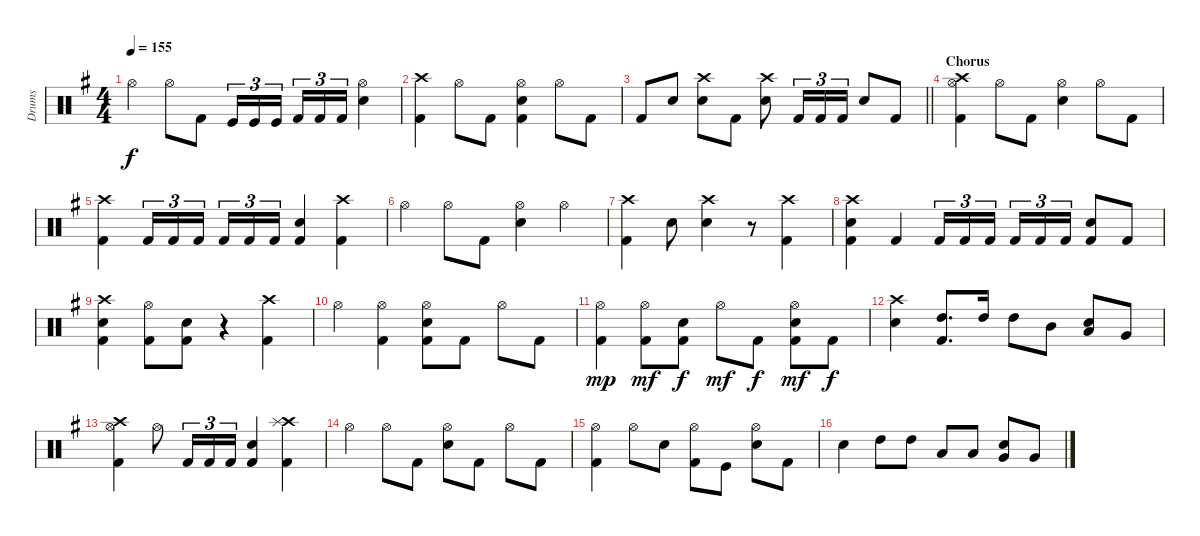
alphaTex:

\track ("Drums" "Drums") {instrument percussion}
\staff {score}
\articulation defaults
\ts (4 4)
\tempo 155
\clef neutral
\ks g "Hi-Hat (open)".4{dy f} "Hi-Hat (open)".8 "Kick (hit) 2".8 "Kick (hit)".16{tu (3 2)} "Kick (hit)".16{tu (3 2)} "Kick (hit)".16{tu (3 2) beam splitsecondary} "Kick (hit) 2".16{tu (3 2)} "Kick (hit) 2".16{tu (3 2)} "Kick (hit) 2".16{tu (3 2)}
("Hi-Hat (open)" "Snare (hit) 2").4 |
("Crash high (hit)" "Kick (hit) 2").4 "Hi-Hat (open)".8 "Kick (hit) 2".8 ("Hi-Hat (open)" "Snare (hit) 2" "Kick (hit) 2").4 "Hi-Hat (open)".8 "Kick (hit) 2".8 |
\barLineRight lightlight "Kick (hit) 2".8 "Snare (hit) 2".8
("Crash high (hit)" "Snare (hit) 2").8 "Kick (hit) 2".8 ("Crash high (hit)" "Snare (hit) 2").8 "Kick (hit) 2".16{tu (3 2)} "Kick (hit) 2".16{tu (3 2)} "Kick (hit) 2".16{tu (3 2)} "Snare (hit) 2".8 "Kick (hit) 2".8 |
\section ("" "Chorus")
("Crash high (hit)" "Hi-Hat (open)" "Kick (hit) 2").4 "Hi-Hat (open)".8 "Kick (hit) 2".8 ("Hi-Hat (open)" "Snare (hit) 2").4 "Hi-Hat (open)".8 "Kick (hit) 2".8 |
("Crash high (hit)" "Kick (hit) 2").4 "Kick (hit) 2".16{tu (3 2)} "Kick (hit) 2".16{tu (3 2)} "Kick (hit) 2".16{tu (3 2) beam splitsecondary} "Kick (hit) 2".16{tu (3 2)} "Kick (hit) 2".16{tu (3 2)} "Kick (hit) 2".16{tu (3 2)} ("Snare (hit) 2" "Kick (hit) 2").4 ("Crash high (hit)" "Kick (hit) 2").4 |
"Hi-Hat (open)".4 "Hi-Hat (open)".8 "Kick (hit) 2".8 ("Hi-Hat (open)" "Snare (hit) 2").4 "Hi-Hat (open)".4 |
("Crash high (hit)" "Kick (hit) 2").4 "Snare (hit) 2".8 ("Crash high (hit)" "Snare (hit) 2").4 r.8 ("Crash high (hit)" "Kick (hit) 2").4 |
("Crash high (hit)" "Snare (hit) 2" "Kick (hit) 2").4 "Kick (hit) 2".4 "Kick (hit) 2".16{tu (3 2)} "Kick (hit) 2".16{tu (3 2)} "Kick (hit) 2".16{tu (3 2) beam splitsecondary} "Kick (hit) 2".16{tu (3 2)} "Kick (hit) 2".16{tu (3 2)} "Kick (hit) 2".16{tu (3 2)} ("Snare (hit) 2" "Kick (hit) 2").8 "Kick (hit) 2".8 |
("Crash high (hit)" "Snare (hit) 2" "Kick (hit) 2").4 ("Hi-Hat (open)" "Kick (hit) 2").8 ("Snare (hit) 2" "Kick (hit) 2").8 r.4 ("Crash high (hit)" "Kick (hit) 2").4 |
"Hi-Hat (open)".4 ("Hi-Hat (open)" "Kick (hit) 2").4 ("Hi-Hat (open)" "Snare (hit) 2" "Kick (hit) 2").8 "Kick (hit) 2".8 "Hi-Hat (open)".8 "Kick (hit) 2".8 |
("Hi-Hat (open)" "Kick (hit) 2").4{dy mp} ("Hi-Hat (open)" "Kick (hit) 2").8{dy mf} ("Snare (hit) 2" "Kick (hit) 2").8{dy f} "Hi-Hat (open)".8{dy mf} "Kick (hit) 2".8{dy f} ("Hi-Hat (open)" "Snare (hit) 2" "Kick (hit) 2").8{dy mf} "Kick (hit) 2".8{dy f} |
("Crash high (hit)" "Snare (hit) 2").4 ("High Tom (hit)" "Kick (hit) 2").8{d} "High Tom (hit)".16 "High Tom (hit)".8 "Mid Tom (hit)".8 ("Snare (hit) 2" "Low Tom (hit)").8 "Very Low Tom (hit)".8 |
("Crash high (hit)" "Hi-Hat (open)" "Kick (hit) 2").4 "Hi-Hat (open)".8 "Kick (hit) 2".16{tu (3 2)} "Kick (hit) 2".16{tu (3 2)} "Kick (hit) 2".16{tu (3 2)} ("Snare (hit) 2" "Kick (hit) 2").4 ("Crash high (hit)" "Splash (hit)" "Kick (hit) 2").4 |
"Hi-Hat (open)".4 "Hi-Hat (open)".8 "Kick (hit) 2".8 ("Hi-Hat (open)" "Snare (hit) 2").8 "Kick (hit) 2".8 "Hi-Hat (open)".8 "Kick (hit) 2".8 |
("Hi-Hat (open)" "Kick (hit) 2").4 "Hi-Hat (open)".8 "Snare (hit) 2".8 ("Hi-Hat (open)" "Kick (hit) 2").8 "Kick (hit)".8 ("Hi-Hat (open)" "Snare (hit) 2").8 "Kick (hit) 2".8 |
"Snare (hit) 2".4 "High Tom (hit)".8 "High Tom (hit)".8 "Low Tom (hit)".8 "Low Tom (hit)".8 ("Snare (hit) 2" "Very Low Tom (hit)").8 "Very Low Tom (hit)".8
